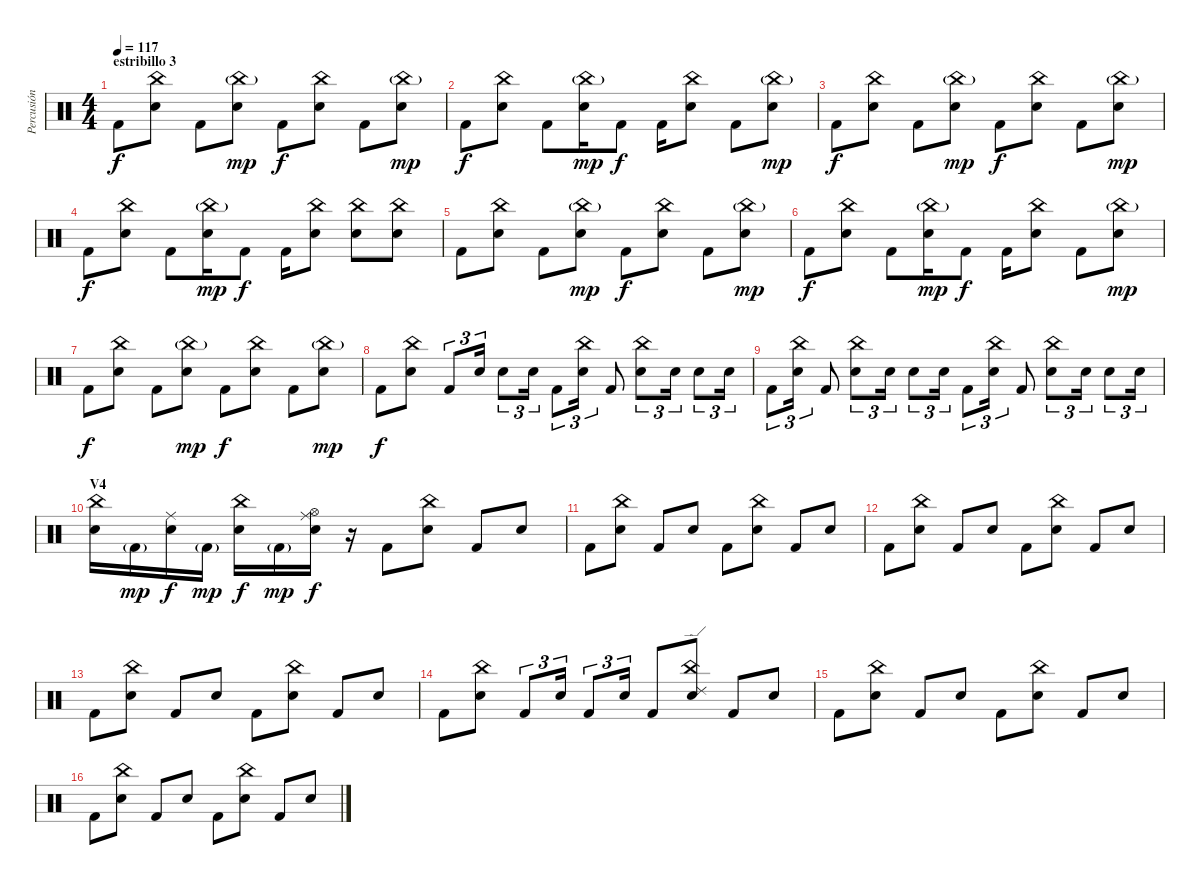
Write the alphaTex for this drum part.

\track ("Percusión" "Percusión") {instrument percussion}
\staff {score}
\articulation defaults
\ts (4 4)
\section ("" "estribillo 3")
\tempo 117
\clef neutral
\ks c "Kick (hit) 2".8{dy f}
("Snare (hit) 2" "China (hit)").8 "Kick (hit) 2".8 ("Snare (hit) 2" "China (hit)"{g}).8{dy mp} "Kick (hit) 2".8{dy f} ("Snare (hit) 2" "China (hit)").8 "Kick (hit) 2".8 ("Snare (hit) 2" "China (hit)"{g}).8{dy mp} |
"Kick (hit) 2".8{dy f} ("Snare (hit) 2" "China (hit)").8 "Kick (hit) 2".8 ("Snare (hit) 2" "China (hit)"{g}).16{dy mp} "Kick (hit) 2".8{dy f} "Kick (hit) 2".16 ("Snare (hit) 2" "China (hit)").8 "Kick (hit) 2".8 ("Snare (hit) 2" "China (hit)"{g}).8{dy mp} |
"Kick (hit) 2".8{dy f} ("Snare (hit) 2" "China (hit)").8 "Kick (hit) 2".8 ("Snare (hit) 2" "China (hit)"{g}).8{dy mp} "Kick (hit) 2".8{dy f} ("Snare (hit) 2" "China (hit)").8 "Kick (hit) 2".8 ("Snare (hit) 2" "China (hit)"{g}).8{dy mp} |
"Kick (hit) 2".8{dy f} ("Snare (hit) 2" "China (hit)").8 "Kick (hit) 2".8 ("Snare (hit) 2" "China (hit)"{g}).16{dy mp} "Kick (hit) 2".8{dy f} "Kick (hit) 2".16 ("Snare (hit) 2" "China (hit)").8 ("Snare (hit) 2" "China (hit)").8 ("Snare (hit) 2" "China (hit)").8 |
"Kick (hit) 2".8 ("Snare (hit) 2" "China (hit)").8 "Kick (hit) 2".8 ("Snare (hit) 2" "China (hit)"{g}).8{dy mp} "Kick (hit) 2".8{dy f} ("Snare (hit) 2" "China (hit)").8 "Kick (hit) 2".8 ("Snare (hit) 2" "China (hit)"{g}).8{dy mp} |
"Kick (hit) 2".8{dy f} ("Snare (hit) 2" "China (hit)").8 "Kick (hit) 2".8 ("Snare (hit) 2" "China (hit)"{g}).16{dy mp} "Kick (hit) 2".8{dy f} "Kick (hit) 2".16 ("Snare (hit) 2" "China (hit)").8 "Kick (hit) 2".8 ("Snare (hit) 2" "China (hit)"{g}).8{dy mp} |
"Kick (hit) 2".8{dy f} ("Snare (hit) 2" "China (hit)").8 "Kick (hit) 2".8 ("Snare (hit) 2" "China (hit)"{g}).8{dy mp} "Kick (hit) 2".8{dy f} ("Snare (hit) 2" "China (hit)").8 "Kick (hit) 2".8 ("Snare (hit) 2" "China (hit)"{g}).8{dy mp} |
"Kick (hit) 2".8{dy f} ("Snare (hit) 2" "China (hit)").8 "Kick (hit) 2".8{tu (3 2)} "Snare (hit) 2".16{tu (3 2)} "Snare (hit) 2".8{tu (3 2)} "Snare (hit) 2".16{tu (3 2)} "Kick (hit) 2".8{tu (3 2)} ("Electric Snare (hit)" "China (hit)").16{tu (3 2)} "Kick (hit) 2".8 ("Electric Snare (hit)" "China (hit)").8{tu (3 2)} "Snare (hit) 2".16{tu (3 2)} "Snare (hit) 2".8{tu (3 2)} "Snare (hit) 2".16{tu (3 2)} |
"Kick (hit) 2".8{tu (3 2)} ("Electric Snare (hit)" "China (hit)").16{tu (3 2)} "Kick (hit) 2".8 ("Electric Snare (hit)" "China (hit)").8{tu (3 2)} "Snare (hit) 2".16{tu (3 2)} "Snare (hit) 2".8{tu (3 2)} "Snare (hit) 2".16{tu (3 2)} "Kick (hit) 2".8{tu (3 2)} ("Electric Snare (hit)" "China (hit)").16{tu (3 2)} "Kick (hit) 2".8 ("Electric Snare (hit)" "China (hit)").8{tu (3 2)} "Snare (hit) 2".16{tu (3 2)} "Snare (hit) 2".8{tu (3 2)} "Snare (hit) 2".16{tu (3 2)} |
\section ("" "V4")
("Snare (hit) 2" "China (hit)").16 "Kick (hit) 2"{g}.16{dy mp} ("Snare (hit) 2" "Ride (middle)").16{dy f} "Kick (hit) 2"{g}.16{dy mp} ("Snare (hit) 2" "China (hit)").16{dy f} "Kick (hit) 2"{g}.16{dy mp} ("Snare (hit) 2" "Ride (middle)" "Hi-Hat (open)").16{dy f} r.16 "Kick (hit) 2".8 ("Snare (hit) 2" "China (hit)").8 "Kick (hit) 2".8 "Snare (hit) 2".8 |
"Kick (hit) 2".8 ("Snare (hit) 2" "China (hit)").8 "Kick (hit) 2".8 "Snare (hit) 2".8 "Kick (hit) 2".8 ("Snare (hit) 2" "China (hit)").8 "Kick (hit) 2".8 "Snare (hit) 2".8 |
"Kick (hit) 2".8 ("Snare (hit) 2" "China (hit)").8 "Kick (hit) 2".8 "Snare (hit) 2".8 "Kick (hit) 2".8 ("Snare (hit) 2" "China (hit)").8 "Kick (hit) 2".8 "Snare (hit) 2".8 |
"Kick (hit) 2".8 ("Snare (hit) 2" "China (hit)").8 "Kick (hit) 2".8 "Snare (hit) 2".8 "Kick (hit) 2".8 ("Snare (hit) 2" "China (hit)").8 "Kick (hit) 2".8 "Snare (hit) 2".8 |
"Kick (hit) 2".8 ("Snare (hit) 2" "China (hit)").8 "Kick (hit) 2".8{tu (3 2)} "Snare (hit) 2".16{tu (3 2)} "Kick (hit) 2".8{tu (3 2)} "Snare (hit) 2".16{tu (3 2)} "Kick (hit) 2".8 ("Snare (hit) 2" "China (hit)" "Ride (edge) 2").8 "Kick (hit) 2".8 "Snare (hit) 2".8 |
"Kick (hit) 2".8 ("Snare (hit) 2" "China (hit)").8 "Kick (hit) 2".8 "Snare (hit) 2".8 "Kick (hit) 2".8 ("Snare (hit) 2" "China (hit)").8 "Kick (hit) 2".8 "Snare (hit) 2".8 |
"Kick (hit) 2".8 ("Snare (hit) 2" "China (hit)").8 "Kick (hit) 2".8 "Snare (hit) 2".8 "Kick (hit) 2".8 ("Snare (hit) 2" "China (hit)").8 "Kick (hit) 2".8 "Snare (hit) 2".8
